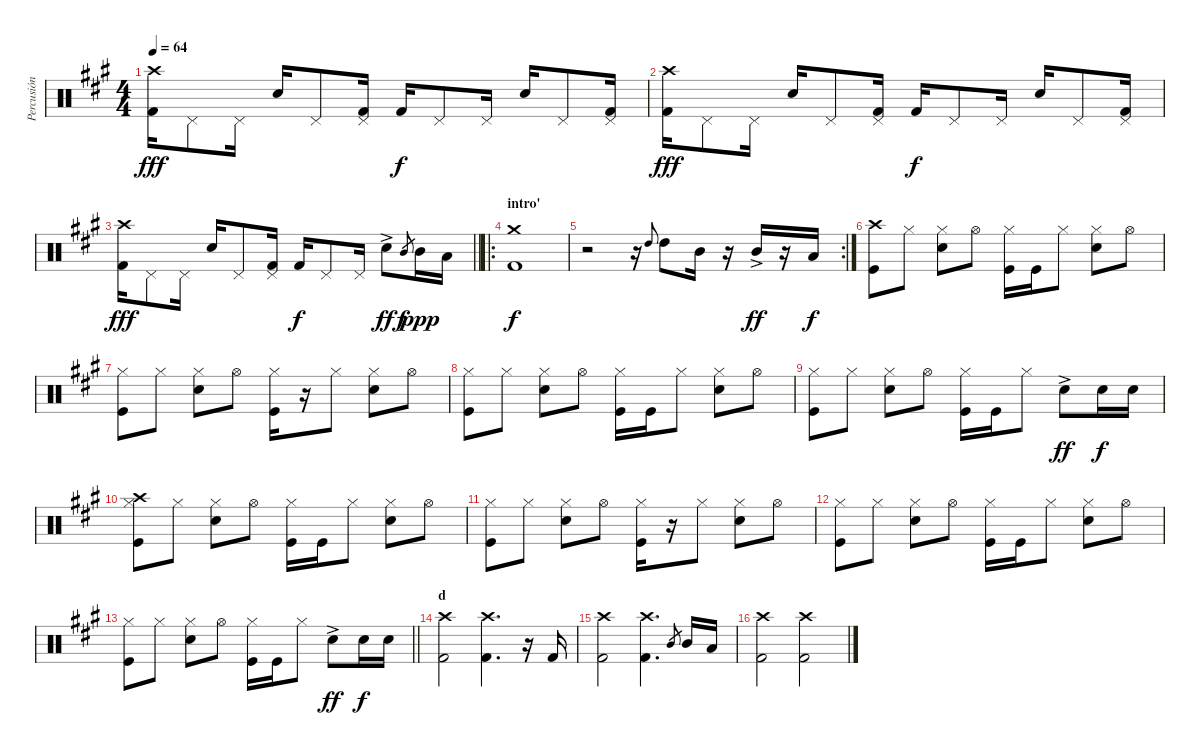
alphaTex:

\track ("Percusión" "Percusión") {instrument percussion}
\staff {score}
\articulation defaults
\ts (4 4)
\tempo 64
\clef neutral
\ks a
("Crash high (hit)" "Kick (hit) 2").16{dy fff} "Pedal Hi-Hat (hit)".8 "Pedal Hi-Hat (hit)".16 "Electric Snare (hit)".16 "Pedal Hi-Hat (hit)".8 ("Pedal Hi-Hat (hit)" "Kick (hit) 2").16 "Kick (hit) 2".16{dy f} "Pedal Hi-Hat (hit)".8 "Pedal Hi-Hat (hit)".16 "Electric Snare (hit)".16 "Pedal Hi-Hat (hit)".8 ("Pedal Hi-Hat (hit)" "Kick (hit) 2").16 |
("Crash high (hit)" "Kick (hit) 2").16{dy fff} "Pedal Hi-Hat (hit)".8 "Pedal Hi-Hat (hit)".16 "Electric Snare (hit)".16 "Pedal Hi-Hat (hit)".8 ("Pedal Hi-Hat (hit)" "Kick (hit) 2").16 "Kick (hit) 2".16{dy f} "Pedal Hi-Hat (hit)".8 "Pedal Hi-Hat (hit)".16 "Electric Snare (hit)".16 "Pedal Hi-Hat (hit)".8 ("Pedal Hi-Hat (hit)" "Kick (hit) 2").16 |
\barLineRight lightlight
("Crash high (hit)" "Kick (hit) 2").16{dy fff} "Pedal Hi-Hat (hit)".8 "Pedal Hi-Hat (hit)".16 "Electric Snare (hit)".16 "Pedal Hi-Hat (hit)".8 ("Pedal Hi-Hat (hit)" "Kick (hit) 2").16 "Kick (hit) 2".16{dy f} "Pedal Hi-Hat (hit)".8 "Pedal Hi-Hat (hit)".16 "Electric Snare (hit)"{ac}.8{dy ff} "Mid Tom (hit)".8{gr dy f} "Mid Tom (hit)".16{dy ppp} "Low Tom (hit)".16 |
\ro
\section ("" "intro'")
("Kick (hit) 2" "Crash medium (hit)").1{dy f} |
\rc 2
r.2 r.16 "High Tom (hit)".8{gr onbeat} "High Tom (hit)".8 "Mid Tom (hit)".16 r.16 "Mid Tom (hit)"{ac}.16{dy ff} r.16 "Low Tom (hit)".16{dy f} |
("Kick (hit)" "Crash high (hit)").8 "Hi-Hat (closed)".8 ("Hi-Hat (closed)" "Snare (hit) 2").8 "Hi-Hat (open)".8 ("Kick (hit)" "Hi-Hat (closed)").16 "Kick (hit)".16 "Hi-Hat (closed)".8 ("Hi-Hat (closed)" "Snare (hit) 2").8 "Hi-Hat (open)".8 |
("Hi-Hat (closed)" "Kick (hit)").8 "Hi-Hat (closed)".8 ("Hi-Hat (closed)" "Snare (hit) 2").8 "Hi-Hat (open)".8 ("Kick (hit)" "Hi-Hat (closed)").16 r.16 "Hi-Hat (closed)".8 ("Hi-Hat (closed)" "Snare (hit) 2").8 "Hi-Hat (open)".8 |
("Hi-Hat (closed)" "Kick (hit)").8 "Hi-Hat (closed)".8 ("Hi-Hat (closed)" "Snare (hit) 2").8 "Hi-Hat (open)".8 ("Kick (hit)" "Hi-Hat (closed)").16 "Kick (hit)".16 "Hi-Hat (closed)".8 ("Hi-Hat (closed)" "Snare (hit) 2").8 "Hi-Hat (open)".8 |
("Hi-Hat (closed)" "Kick (hit)").8 "Hi-Hat (closed)".8 ("Hi-Hat (closed)" "Snare (hit) 2").8 "Hi-Hat (open)".8 ("Kick (hit)" "Hi-Hat (closed)").16 "Kick (hit)".16 "Hi-Hat (closed)".8 "Snare (hit) 2"{ac}.8{dy ff} "Snare (hit) 2".16{dy f} "Snare (hit) 2".16 |
("Hi-Hat (closed)" "Kick (hit)" "Crash high (hit)").8 "Hi-Hat (closed)".8 ("Hi-Hat (closed)" "Snare (hit) 2").8 "Hi-Hat (open)".8 ("Kick (hit)" "Hi-Hat (closed)").16 "Kick (hit)".16 "Hi-Hat (closed)".8 ("Hi-Hat (closed)" "Snare (hit) 2").8 "Hi-Hat (open)".8 |
("Hi-Hat (closed)" "Kick (hit)").8 "Hi-Hat (closed)".8 ("Hi-Hat (closed)" "Snare (hit) 2").8 "Hi-Hat (open)".8 ("Kick (hit)" "Hi-Hat (closed)").16 r.16 "Hi-Hat (closed)".8 ("Hi-Hat (closed)" "Snare (hit) 2").8 "Hi-Hat (open)".8 |
("Hi-Hat (closed)" "Kick (hit)").8 "Hi-Hat (closed)".8 ("Hi-Hat (closed)" "Snare (hit) 2").8 "Hi-Hat (open)".8 ("Kick (hit)" "Hi-Hat (closed)").16 "Kick (hit)".16 "Hi-Hat (closed)".8 ("Hi-Hat (closed)" "Snare (hit) 2").8 "Hi-Hat (open)".8 |
\barLineRight lightlight
("Hi-Hat (closed)" "Kick (hit)").8 "Hi-Hat (closed)".8 ("Hi-Hat (closed)" "Snare (hit) 2").8 "Hi-Hat (open)".8 ("Kick (hit)" "Hi-Hat (closed)").16 "Kick (hit)".16 "Hi-Hat (closed)".8 "Snare (hit) 2"{ac}.8{dy ff} "Snare (hit) 2".16{dy f} "Snare (hit) 2".16 |
\section ("" "d")
("Kick (hit) 2" "Crash high (hit)").2 ("Kick (hit) 2" "Crash high (hit)").4{d} r.16 "Kick (hit) 2".16 |
("Kick (hit) 2" "Crash high (hit)").2 ("Kick (hit) 2" "Crash high (hit)").4{d} "Mid Tom (hit)".8{gr} "Mid Tom (hit)".16 "Low Tom (hit)".16 |
("Kick (hit) 2" "Crash high (hit)").2 ("Kick (hit) 2" "Crash high (hit)").2
